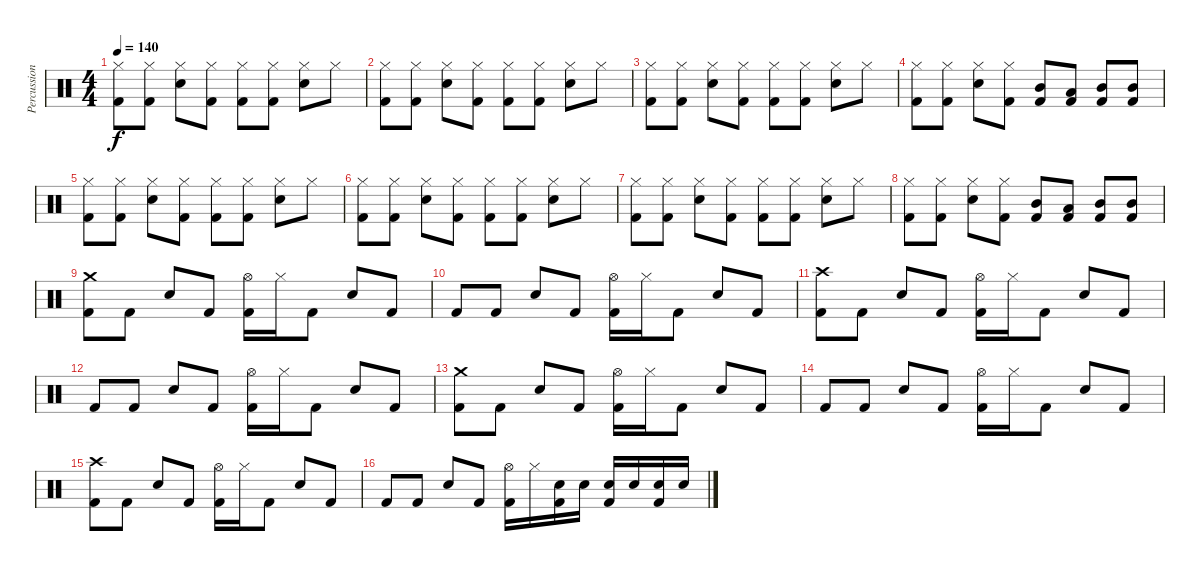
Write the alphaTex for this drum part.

\track ("Percussion" "Percussion") {instrument percussion}
\staff {score}
\articulation defaults
\ts (4 4)
\tempo 140
\clef neutral
\ks c
("Hi-Hat (closed)" "Kick (hit) 2").8{dy f} ("Hi-Hat (closed)" "Kick (hit) 2").8 ("Hi-Hat (closed)" "Snare (hit) 2").8 ("Hi-Hat (closed)" "Kick (hit) 2").8 ("Hi-Hat (closed)" "Kick (hit) 2").8 ("Hi-Hat (closed)" "Kick (hit) 2").8 ("Hi-Hat (closed)" "Snare (hit) 2").8 "Hi-Hat (closed)".8 |
("Hi-Hat (closed)" "Kick (hit) 2").8 ("Hi-Hat (closed)" "Kick (hit) 2").8 ("Hi-Hat (closed)" "Snare (hit) 2").8 ("Hi-Hat (closed)" "Kick (hit) 2").8 ("Hi-Hat (closed)" "Kick (hit) 2").8 ("Hi-Hat (closed)" "Kick (hit) 2").8 ("Hi-Hat (closed)" "Snare (hit) 2").8 "Hi-Hat (closed)".8 |
("Hi-Hat (closed)" "Kick (hit) 2").8 ("Hi-Hat (closed)" "Kick (hit) 2").8 ("Hi-Hat (closed)" "Snare (hit) 2").8 ("Hi-Hat (closed)" "Kick (hit) 2").8 ("Hi-Hat (closed)" "Kick (hit) 2").8 ("Hi-Hat (closed)" "Kick (hit) 2").8 ("Hi-Hat (closed)" "Snare (hit) 2").8 "Hi-Hat (closed)".8 |
("Hi-Hat (closed)" "Kick (hit) 2").8 ("Hi-Hat (closed)" "Kick (hit) 2").8 ("Hi-Hat (closed)" "Snare (hit) 2").8 ("Hi-Hat (closed)" "Kick (hit) 2").8 ("Mid Tom (hit)" "Kick (hit) 2").8 ("Low Tom (hit)" "Kick (hit) 2").8 ("Mid Tom (hit)" "Kick (hit) 2").8 ("Mid Tom (hit)" "Kick (hit) 2").8 |
("Hi-Hat (closed)" "Kick (hit) 2").8 ("Hi-Hat (closed)" "Kick (hit) 2").8 ("Hi-Hat (closed)" "Snare (hit) 2").8 ("Hi-Hat (closed)" "Kick (hit) 2").8 ("Hi-Hat (closed)" "Kick (hit) 2").8 ("Hi-Hat (closed)" "Kick (hit) 2").8 ("Hi-Hat (closed)" "Snare (hit) 2").8 "Hi-Hat (closed)".8 |
("Hi-Hat (closed)" "Kick (hit) 2").8 ("Hi-Hat (closed)" "Kick (hit) 2").8 ("Hi-Hat (closed)" "Snare (hit) 2").8 ("Hi-Hat (closed)" "Kick (hit) 2").8 ("Hi-Hat (closed)" "Kick (hit) 2").8 ("Hi-Hat (closed)" "Kick (hit) 2").8 ("Hi-Hat (closed)" "Snare (hit) 2").8 "Hi-Hat (closed)".8 |
("Hi-Hat (closed)" "Kick (hit) 2").8 ("Hi-Hat (closed)" "Kick (hit) 2").8 ("Hi-Hat (closed)" "Snare (hit) 2").8 ("Hi-Hat (closed)" "Kick (hit) 2").8 ("Hi-Hat (closed)" "Kick (hit) 2").8 ("Hi-Hat (closed)" "Kick (hit) 2").8 ("Hi-Hat (closed)" "Snare (hit) 2").8 "Hi-Hat (closed)".8 |
("Hi-Hat (closed)" "Kick (hit) 2").8 ("Hi-Hat (closed)" "Kick (hit) 2").8 ("Hi-Hat (closed)" "Snare (hit) 2").8 ("Hi-Hat (closed)" "Kick (hit) 2").8 ("Mid Tom (hit)" "Kick (hit) 2").8 ("Low Tom (hit)" "Kick (hit) 2").8 ("Mid Tom (hit)" "Kick (hit) 2").8 ("Mid Tom (hit)" "Kick (hit) 2").8 |
("Crash medium (hit)" "Kick (hit) 2").8 "Kick (hit) 2".8 "Snare (hit) 2".8 "Kick (hit) 2".8 ("Hi-Hat (open)" "Kick (hit) 2").16 "Hi-Hat (closed)".16 "Kick (hit) 2".8 "Snare (hit) 2".8 "Kick (hit) 2".8 |
"Kick (hit) 2".8 "Kick (hit) 2".8 "Snare (hit) 2".8 "Kick (hit) 2".8 ("Hi-Hat (open)" "Kick (hit) 2").16 "Hi-Hat (closed)".16 "Kick (hit) 2".8 "Snare (hit) 2".8 "Kick (hit) 2".8 |
("Crash high (hit)" "Kick (hit) 2").8 "Kick (hit) 2".8 "Snare (hit) 2".8 "Kick (hit) 2".8 ("Hi-Hat (open)" "Kick (hit) 2").16 "Hi-Hat (closed)".16 "Kick (hit) 2".8 "Snare (hit) 2".8 "Kick (hit) 2".8 |
"Kick (hit) 2".8 "Kick (hit) 2".8 "Snare (hit) 2".8 "Kick (hit) 2".8 ("Hi-Hat (open)" "Kick (hit) 2").16 "Hi-Hat (closed)".16 "Kick (hit) 2".8 "Snare (hit) 2".8 "Kick (hit) 2".8 |
("Crash medium (hit)" "Kick (hit) 2").8 "Kick (hit) 2".8 "Snare (hit) 2".8 "Kick (hit) 2".8 ("Hi-Hat (open)" "Kick (hit) 2").16 "Hi-Hat (closed)".16 "Kick (hit) 2".8 "Snare (hit) 2".8 "Kick (hit) 2".8 |
"Kick (hit) 2".8 "Kick (hit) 2".8 "Snare (hit) 2".8 "Kick (hit) 2".8 ("Hi-Hat (open)" "Kick (hit) 2").16 "Hi-Hat (closed)".16 "Kick (hit) 2".8 "Snare (hit) 2".8 "Kick (hit) 2".8 |
("Crash high (hit)" "Kick (hit) 2").8 "Kick (hit) 2".8 "Snare (hit) 2".8 "Kick (hit) 2".8 ("Hi-Hat (open)" "Kick (hit) 2").16 "Hi-Hat (closed)".16 "Kick (hit) 2".8 "Snare (hit) 2".8 "Kick (hit) 2".8 |
"Kick (hit) 2".8 "Kick (hit) 2".8 "Snare (hit) 2".8 "Kick (hit) 2".8 ("Hi-Hat (open)" "Kick (hit) 2").16 "Hi-Hat (closed)".16 ("Snare (hit) 2" "Kick (hit) 2").16 "Snare (hit) 2".16 ("Snare (hit) 2" "Kick (hit) 2").16 "Snare (hit) 2".16 ("Snare (hit) 2" "Kick (hit) 2").16 "Snare (hit) 2".16
